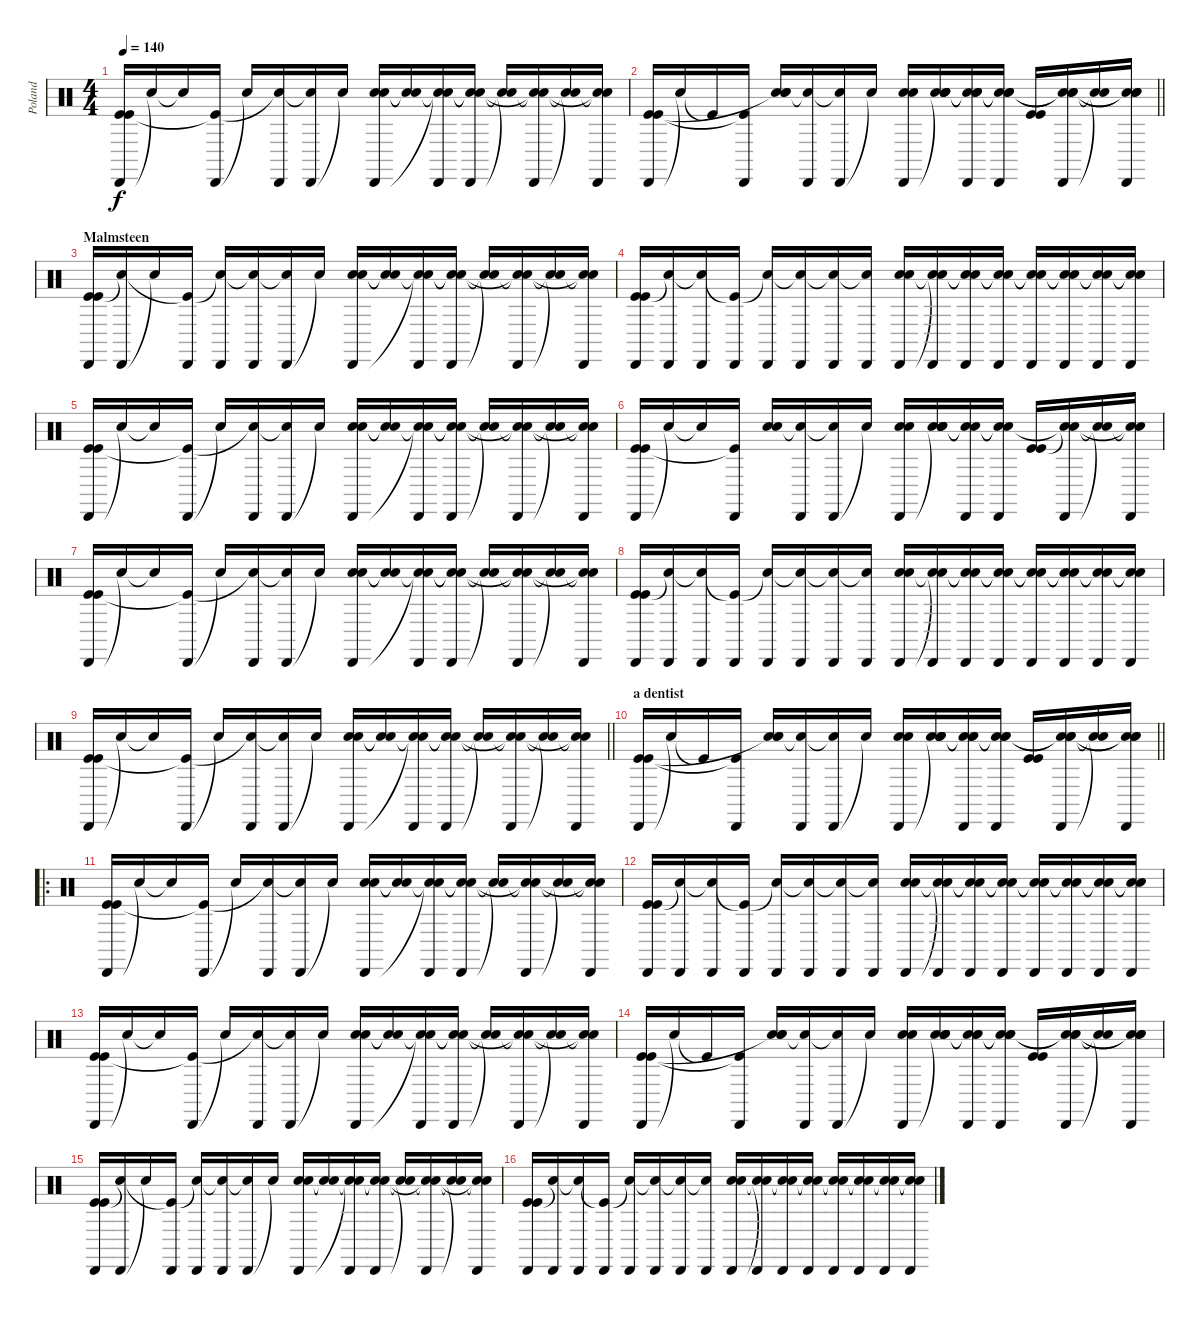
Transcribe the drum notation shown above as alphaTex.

\track ("Poland" "Poland") {instrument percussion}
\staff {score}
\articulation defaults
\ts (4 4)
\tempo 140
\clef neutral
\ks c
("Cabasa (hit)" "Kick (hit)" "Kick (hit)").16{dy f} "Snare (hit)"{t}.16 "Snare (hit)"{t}.16 ("Cabasa (hit)" "Kick (hit)"{t}).16 "Snare (hit)"{t}.16 ("Cabasa (hit)" "Snare (hit)"{t}).16 ("Cabasa (hit)" "Snare (hit)"{t}).16 "Snare (hit)"{t}.16 ("Hand Clap (hit)" "Hand Clap (hit)" "Cabasa (hit)").16 ("Snare (hit)"{t} "Snare (hit)"{t}).16 ("Cabasa (hit)" "Snare (hit)"{t} "Snare (hit)"{t}).16 ("Cabasa (hit)" "Snare (hit)"{t} "Snare (hit)"{t}).16 ("Snare (hit)"{t} "Snare (hit)"{t}).16 ("Cabasa (hit)" "Snare (hit)"{t} "Snare (hit)"{t}).16 ("Snare (hit)"{t} "Snare (hit)"{t}).16 ("Cabasa (hit)" "Snare (hit)"{t} "Snare (hit)"{t}).16 |
\barLineRight lightlight
("Cabasa (hit)" "Kick (hit)" "Kick (hit)").16 "Snare (hit)"{t}.16 "Kick (hit)"{t}.16 ("Cabasa (hit)" "Kick (hit)"{t}).16 ("Hand Clap (hit)" "Hand Clap (hit)" "Snare (hit)"{t}).16 ("Cabasa (hit)" "Snare (hit)"{t}).16 ("Cabasa (hit)" "Snare (hit)"{t}).16 "Snare (hit)"{t}.16 ("Hand Clap (hit)" "Hand Clap (hit)" "Cabasa (hit)").16 ("Hand Clap (hit)" "Hand Clap (hit)" "Snare (hit)"{t} "Snare (hit)").16 ("Hand Clap (hit)" "Cabasa (hit)" "Snare (hit)"{t} "Snare (hit)"{t}).16 ("Hand Clap (hit)" "Cabasa (hit)" "Snare (hit)"{t} "Snare (hit)"{t}).16 ("Kick (hit)" "Kick (hit)").16 ("Hand Clap (hit)" "Cabasa (hit)" "Snare (hit)"{t} "Snare (hit)"{t}).16 ("Snare (hit)"{t} "Snare (hit)"{t}).16 ("Hand Clap (hit)" "Cabasa (hit)" "Snare (hit)"{t} "Snare (hit)"{t}).16 |
\section ("" "Malmsteen")
("Cabasa (hit)" "Kick (hit)" "Kick (hit)").16 ("Cabasa (hit)" "Snare (hit)"{t}).16 "Snare (hit)"{t}.16 ("Cabasa (hit)" "Kick (hit)"{t}).16 ("Cabasa (hit)" "Snare (hit)"{t}).16 ("Cabasa (hit)" "Snare (hit)"{t}).16 ("Cabasa (hit)" "Snare (hit)"{t}).16 "Snare (hit)"{t}.16 ("Hand Clap (hit)" "Hand Clap (hit)" "Cabasa (hit)").16 ("Snare (hit)"{t} "Snare (hit)"{t}).16 ("Cabasa (hit)" "Snare (hit)"{t} "Snare (hit)"{t}).16 ("Cabasa (hit)" "Snare (hit)"{t} "Snare (hit)"{t}).16 ("Snare (hit)"{t} "Snare (hit)"{t}).16 ("Cabasa (hit)" "Snare (hit)"{t} "Snare (hit)"{t}).16 ("Snare (hit)"{t} "Snare (hit)"{t}).16 ("Cabasa (hit)" "Snare (hit)"{t} "Snare (hit)"{t}).16 |
("Cabasa (hit)" "Kick (hit)" "Kick (hit)").16 ("Cabasa (hit)" "Snare (hit)"{t}).16 ("Cabasa (hit)" "Snare (hit)"{t}).16 ("Cabasa (hit)" "Kick (hit)"{t}).16 ("Cabasa (hit)" "Snare (hit)"{t}).16 ("Cabasa (hit)" "Snare (hit)"{t}).16 ("Cabasa (hit)" "Snare (hit)"{t}).16 ("Cabasa (hit)" "Snare (hit)"{t}).16 ("Hand Clap (hit)" "Hand Clap (hit)" "Cabasa (hit)").16 ("Cabasa (hit)" "Snare (hit)"{t} "Snare (hit)"{t}).16 ("Cabasa (hit)" "Snare (hit)"{t} "Snare (hit)"{t}).16 ("Cabasa (hit)" "Snare (hit)"{t} "Snare (hit)"{t}).16 ("Cabasa (hit)" "Snare (hit)"{t} "Snare (hit)"{t}).16 ("Cabasa (hit)" "Snare (hit)"{t} "Snare (hit)"{t}).16 ("Cabasa (hit)" "Snare (hit)"{t} "Snare (hit)"{t}).16 ("Cabasa (hit)" "Snare (hit)"{t} "Snare (hit)"{t}).16 |
("Cabasa (hit)" "Kick (hit)" "Kick (hit)").16 "Snare (hit)"{t}.16 "Snare (hit)"{t}.16 ("Cabasa (hit)" "Kick (hit)"{t}).16 "Snare (hit)"{t}.16 ("Cabasa (hit)" "Snare (hit)"{t}).16 ("Cabasa (hit)" "Snare (hit)"{t}).16 "Snare (hit)"{t}.16 ("Hand Clap (hit)" "Hand Clap (hit)" "Cabasa (hit)").16 ("Snare (hit)"{t} "Snare (hit)"{t}).16 ("Cabasa (hit)" "Snare (hit)"{t} "Snare (hit)"{t}).16 ("Cabasa (hit)" "Snare (hit)"{t} "Snare (hit)"{t}).16 ("Snare (hit)"{t} "Snare (hit)"{t}).16 ("Cabasa (hit)" "Snare (hit)"{t} "Snare (hit)"{t}).16 ("Snare (hit)"{t} "Snare (hit)"{t}).16 ("Cabasa (hit)" "Snare (hit)"{t} "Snare (hit)"{t}).16 |
("Cabasa (hit)" "Kick (hit)" "Kick (hit)").16 "Snare (hit)"{t}.16 "Snare (hit)"{t}.16 ("Cabasa (hit)" "Kick (hit)"{t}).16 ("Hand Clap (hit)" "Hand Clap (hit)").16 ("Cabasa (hit)" "Snare (hit)"{t}).16 ("Cabasa (hit)" "Snare (hit)"{t}).16 "Snare (hit)"{t}.16 ("Hand Clap (hit)" "Hand Clap (hit)" "Cabasa (hit)").16 ("Hand Clap (hit)" "Hand Clap (hit)" "Snare (hit)"{t} "Snare (hit)").16 ("Cabasa (hit)" "Snare (hit)"{t} "Snare (hit)"{t}).16 ("Cabasa (hit)" "Snare (hit)"{t} "Snare (hit)"{t}).16 ("Kick (hit)" "Kick (hit)").16 ("Cabasa (hit)" "Snare (hit)"{t} "Snare (hit)"{t}).16 ("Snare (hit)"{t} "Snare (hit)"{t}).16 ("Cabasa (hit)" "Snare (hit)"{t} "Snare (hit)"{t}).16 |
("Cabasa (hit)" "Kick (hit)" "Kick (hit)").16 "Snare (hit)"{t}.16 "Snare (hit)"{t}.16 ("Cabasa (hit)" "Kick (hit)"{t}).16 "Snare (hit)"{t}.16 ("Cabasa (hit)" "Snare (hit)"{t}).16 ("Cabasa (hit)" "Snare (hit)"{t}).16 "Snare (hit)"{t}.16 ("Hand Clap (hit)" "Hand Clap (hit)" "Cabasa (hit)").16 ("Snare (hit)"{t} "Snare (hit)"{t}).16 ("Cabasa (hit)" "Snare (hit)"{t} "Snare (hit)"{t}).16 ("Cabasa (hit)" "Snare (hit)"{t} "Snare (hit)"{t}).16 ("Snare (hit)"{t} "Snare (hit)"{t}).16 ("Cabasa (hit)" "Snare (hit)"{t} "Snare (hit)"{t}).16 ("Snare (hit)"{t} "Snare (hit)"{t}).16 ("Cabasa (hit)" "Snare (hit)"{t} "Snare (hit)"{t}).16 |
("Cabasa (hit)" "Kick (hit)" "Kick (hit)").16 ("Cabasa (hit)" "Snare (hit)"{t}).16 ("Cabasa (hit)" "Snare (hit)"{t}).16 ("Cabasa (hit)" "Kick (hit)"{t}).16 ("Cabasa (hit)" "Snare (hit)"{t}).16 ("Cabasa (hit)" "Snare (hit)"{t}).16 ("Cabasa (hit)" "Snare (hit)"{t}).16 ("Cabasa (hit)" "Snare (hit)"{t}).16 ("Hand Clap (hit)" "Hand Clap (hit)" "Cabasa (hit)").16 ("Cabasa (hit)" "Snare (hit)"{t} "Snare (hit)"{t}).16 ("Cabasa (hit)" "Snare (hit)"{t} "Snare (hit)"{t}).16 ("Cabasa (hit)" "Snare (hit)"{t} "Snare (hit)"{t}).16 ("Cabasa (hit)" "Snare (hit)"{t} "Snare (hit)"{t}).16 ("Cabasa (hit)" "Snare (hit)"{t} "Snare (hit)"{t}).16 ("Cabasa (hit)" "Snare (hit)"{t} "Snare (hit)"{t}).16 ("Cabasa (hit)" "Snare (hit)"{t} "Snare (hit)"{t}).16 |
\barLineRight lightlight
("Cabasa (hit)" "Kick (hit)" "Kick (hit)").16 "Snare (hit)"{t}.16 "Snare (hit)"{t}.16 ("Cabasa (hit)" "Kick (hit)"{t}).16 "Snare (hit)"{t}.16 ("Cabasa (hit)" "Snare (hit)"{t}).16 ("Cabasa (hit)" "Snare (hit)"{t}).16 "Snare (hit)"{t}.16 ("Hand Clap (hit)" "Hand Clap (hit)" "Cabasa (hit)").16 ("Snare (hit)"{t} "Snare (hit)"{t}).16 ("Cabasa (hit)" "Snare (hit)"{t} "Snare (hit)"{t}).16 ("Cabasa (hit)" "Snare (hit)"{t} "Snare (hit)"{t}).16 ("Snare (hit)"{t} "Snare (hit)"{t}).16 ("Cabasa (hit)" "Snare (hit)"{t} "Snare (hit)"{t}).16 ("Snare (hit)"{t} "Snare (hit)"{t}).16 ("Cabasa (hit)" "Snare (hit)"{t} "Snare (hit)"{t}).16 |
\section ("" "a dentist")
\barLineRight lightlight
("Cabasa (hit)" "Kick (hit)" "Kick (hit)").16 "Snare (hit)"{t}.16 "Kick (hit)"{t}.16 ("Cabasa (hit)" "Kick (hit)"{t}).16 ("Hand Clap (hit)" "Hand Clap (hit)" "Snare (hit)"{t}).16 ("Cabasa (hit)" "Snare (hit)"{t}).16 ("Cabasa (hit)" "Snare (hit)"{t}).16 "Snare (hit)"{t}.16 ("Hand Clap (hit)" "Hand Clap (hit)" "Cabasa (hit)").16 ("Hand Clap (hit)" "Hand Clap (hit)" "Snare (hit)"{t} "Snare (hit)").16 ("Hand Clap (hit)" "Cabasa (hit)" "Snare (hit)"{t} "Snare (hit)"{t}).16 ("Hand Clap (hit)" "Cabasa (hit)" "Snare (hit)"{t} "Snare (hit)"{t}).16 ("Kick (hit)" "Kick (hit)").16 ("Hand Clap (hit)" "Cabasa (hit)" "Snare (hit)"{t} "Snare (hit)"{t}).16 ("Snare (hit)"{t} "Snare (hit)"{t}).16 ("Hand Clap (hit)" "Cabasa (hit)" "Snare (hit)"{t} "Snare (hit)"{t}).16 |
\ro
("Cabasa (hit)" "Kick (hit)" "Kick (hit)").16 "Snare (hit)"{t}.16 "Snare (hit)"{t}.16 ("Cabasa (hit)" "Kick (hit)"{t}).16 "Snare (hit)"{t}.16 ("Cabasa (hit)" "Snare (hit)"{t}).16 ("Cabasa (hit)" "Snare (hit)"{t}).16 "Snare (hit)"{t}.16 ("Hand Clap (hit)" "Hand Clap (hit)" "Cabasa (hit)").16 ("Snare (hit)"{t} "Snare (hit)"{t}).16 ("Cabasa (hit)" "Snare (hit)"{t} "Snare (hit)"{t}).16 ("Cabasa (hit)" "Snare (hit)"{t} "Snare (hit)"{t}).16 ("Snare (hit)"{t} "Snare (hit)"{t}).16 ("Cabasa (hit)" "Snare (hit)"{t} "Snare (hit)"{t}).16 ("Snare (hit)"{t} "Snare (hit)"{t}).16 ("Cabasa (hit)" "Snare (hit)"{t} "Snare (hit)"{t}).16 |
("Cabasa (hit)" "Kick (hit)" "Kick (hit)").16 ("Cabasa (hit)" "Snare (hit)"{t}).16 ("Cabasa (hit)" "Snare (hit)"{t}).16 ("Cabasa (hit)" "Kick (hit)"{t}).16 ("Cabasa (hit)" "Snare (hit)"{t}).16 ("Cabasa (hit)" "Snare (hit)"{t}).16 ("Cabasa (hit)" "Snare (hit)"{t}).16 ("Cabasa (hit)" "Snare (hit)"{t}).16 ("Hand Clap (hit)" "Hand Clap (hit)" "Cabasa (hit)").16 ("Cabasa (hit)" "Snare (hit)"{t} "Snare (hit)"{t}).16 ("Cabasa (hit)" "Snare (hit)"{t} "Snare (hit)"{t}).16 ("Cabasa (hit)" "Snare (hit)"{t} "Snare (hit)"{t}).16 ("Cabasa (hit)" "Snare (hit)"{t} "Snare (hit)"{t}).16 ("Cabasa (hit)" "Snare (hit)"{t} "Snare (hit)"{t}).16 ("Cabasa (hit)" "Snare (hit)"{t} "Snare (hit)"{t}).16 ("Cabasa (hit)" "Snare (hit)"{t} "Snare (hit)"{t}).16 |
("Cabasa (hit)" "Kick (hit)" "Kick (hit)").16 "Snare (hit)"{t}.16 "Snare (hit)"{t}.16 ("Cabasa (hit)" "Kick (hit)"{t}).16 "Snare (hit)"{t}.16 ("Cabasa (hit)" "Snare (hit)"{t}).16 ("Cabasa (hit)" "Snare (hit)"{t}).16 "Snare (hit)"{t}.16 ("Hand Clap (hit)" "Hand Clap (hit)" "Cabasa (hit)").16 ("Snare (hit)"{t} "Snare (hit)"{t}).16 ("Cabasa (hit)" "Snare (hit)"{t} "Snare (hit)"{t}).16 ("Cabasa (hit)" "Snare (hit)"{t} "Snare (hit)"{t}).16 ("Snare (hit)"{t} "Snare (hit)"{t}).16 ("Cabasa (hit)" "Snare (hit)"{t} "Snare (hit)"{t}).16 ("Snare (hit)"{t} "Snare (hit)"{t}).16 ("Cabasa (hit)" "Snare (hit)"{t} "Snare (hit)"{t}).16 |
("Cabasa (hit)" "Kick (hit)" "Kick (hit)").16 "Snare (hit)"{t}.16 "Kick (hit)"{t}.16 ("Cabasa (hit)" "Kick (hit)"{t}).16 ("Hand Clap (hit)" "Hand Clap (hit)" "Snare (hit)"{t}).16 ("Cabasa (hit)" "Snare (hit)"{t}).16 ("Cabasa (hit)" "Snare (hit)"{t}).16 "Snare (hit)"{t}.16 ("Hand Clap (hit)" "Hand Clap (hit)" "Cabasa (hit)").16 ("Hand Clap (hit)" "Hand Clap (hit)" "Snare (hit)"{t} "Snare (hit)").16 ("Hand Clap (hit)" "Cabasa (hit)" "Snare (hit)"{t} "Snare (hit)"{t}).16 ("Hand Clap (hit)" "Cabasa (hit)" "Snare (hit)"{t} "Snare (hit)"{t}).16 ("Kick (hit)" "Kick (hit)").16 ("Hand Clap (hit)" "Cabasa (hit)" "Snare (hit)"{t} "Snare (hit)"{t}).16 ("Snare (hit)"{t} "Snare (hit)"{t}).16 ("Hand Clap (hit)" "Cabasa (hit)" "Snare (hit)"{t} "Snare (hit)"{t}).16 |
("Cabasa (hit)" "Kick (hit)" "Kick (hit)").16 ("Cabasa (hit)" "Snare (hit)"{t}).16 "Snare (hit)"{t}.16 ("Cabasa (hit)" "Kick (hit)"{t}).16 ("Cabasa (hit)" "Snare (hit)"{t}).16 ("Cabasa (hit)" "Snare (hit)"{t}).16 ("Cabasa (hit)" "Snare (hit)"{t}).16 "Snare (hit)"{t}.16 ("Hand Clap (hit)" "Hand Clap (hit)" "Cabasa (hit)").16 ("Snare (hit)"{t} "Snare (hit)"{t}).16 ("Cabasa (hit)" "Snare (hit)"{t} "Snare (hit)"{t}).16 ("Cabasa (hit)" "Snare (hit)"{t} "Snare (hit)"{t}).16 ("Snare (hit)"{t} "Snare (hit)"{t}).16 ("Cabasa (hit)" "Snare (hit)"{t} "Snare (hit)"{t}).16 ("Snare (hit)"{t} "Snare (hit)"{t}).16 ("Cabasa (hit)" "Snare (hit)"{t} "Snare (hit)"{t}).16 |
("Cabasa (hit)" "Kick (hit)" "Kick (hit)").16 ("Cabasa (hit)" "Snare (hit)"{t}).16 ("Cabasa (hit)" "Snare (hit)"{t}).16 ("Cabasa (hit)" "Kick (hit)"{t}).16 ("Cabasa (hit)" "Snare (hit)"{t}).16 ("Cabasa (hit)" "Snare (hit)"{t}).16 ("Cabasa (hit)" "Snare (hit)"{t}).16 ("Cabasa (hit)" "Snare (hit)"{t}).16 ("Hand Clap (hit)" "Hand Clap (hit)" "Cabasa (hit)").16 ("Cabasa (hit)" "Snare (hit)"{t} "Snare (hit)"{t}).16 ("Cabasa (hit)" "Snare (hit)"{t} "Snare (hit)"{t}).16 ("Cabasa (hit)" "Snare (hit)"{t} "Snare (hit)"{t}).16 ("Cabasa (hit)" "Snare (hit)"{t} "Snare (hit)"{t}).16 ("Cabasa (hit)" "Snare (hit)"{t} "Snare (hit)"{t}).16 ("Cabasa (hit)" "Snare (hit)"{t} "Snare (hit)"{t}).16 ("Cabasa (hit)" "Snare (hit)"{t} "Snare (hit)"{t}).16
